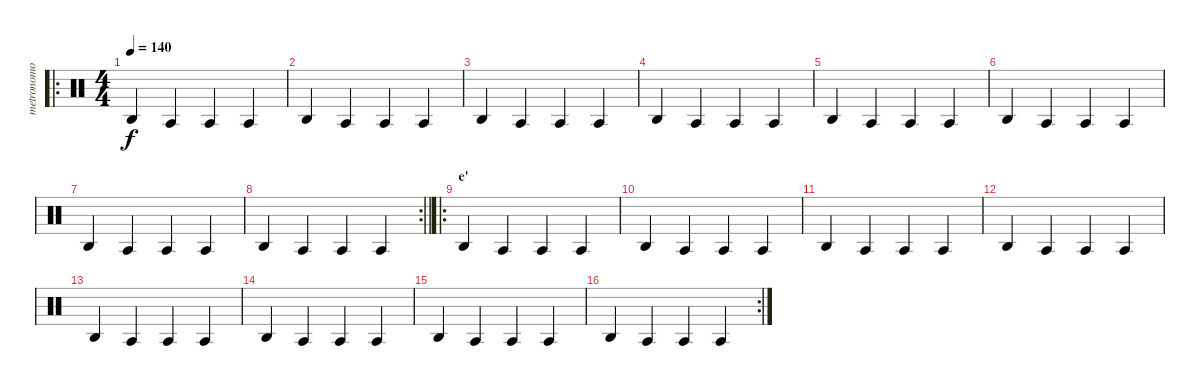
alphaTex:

\track ("metronomo" "metronomo") {instrument percussion}
\staff {score}
\articulation defaults
\ro
\ts (4 4)
\tempo 140
\clef neutral
\ks c "Agogo high (hit)".4{dy f} "Agogo tow (hit)".4 "Agogo tow (hit)".4 "Agogo tow (hit)".4
|
"Agogo high (hit)".4 "Agogo tow (hit)".4 "Agogo tow (hit)".4 "Agogo tow (hit)".4 |
"Agogo high (hit)".4 "Agogo tow (hit)".4 "Agogo tow (hit)".4 "Agogo tow (hit)".4 |
"Agogo high (hit)".4 "Agogo tow (hit)".4 "Agogo tow (hit)".4 "Agogo tow (hit)".4 |
"Agogo high (hit)".4 "Agogo tow (hit)".4 "Agogo tow (hit)".4 "Agogo tow (hit)".4 |
"Agogo high (hit)".4 "Agogo tow (hit)".4 "Agogo tow (hit)".4 "Agogo tow (hit)".4 |
"Agogo high (hit)".4 "Agogo tow (hit)".4 "Agogo tow (hit)".4 "Agogo tow (hit)".4 |
\rc 2
\barLineRight lightlight "Agogo high (hit)".4 "Agogo tow (hit)".4 "Agogo tow (hit)".4 "Agogo tow (hit)".4
|
\ro
\section ("" "e'")
"Agogo high (hit)".4 "Agogo tow (hit)".4 "Agogo tow (hit)".4 "Agogo tow (hit)".4 |
"Agogo high (hit)".4 "Agogo tow (hit)".4 "Agogo tow (hit)".4 "Agogo tow (hit)".4 |
"Agogo high (hit)".4 "Agogo tow (hit)".4 "Agogo tow (hit)".4 "Agogo tow (hit)".4 |
"Agogo high (hit)".4 "Agogo tow (hit)".4 "Agogo tow (hit)".4 "Agogo tow (hit)".4 |
"Agogo high (hit)".4 "Agogo tow (hit)".4 "Agogo tow (hit)".4 "Agogo tow (hit)".4 |
"Agogo high (hit)".4 "Agogo tow (hit)".4 "Agogo tow (hit)".4 "Agogo tow (hit)".4 |
"Agogo high (hit)".4 "Agogo tow (hit)".4 "Agogo tow (hit)".4 "Agogo tow (hit)".4 |
\rc 2 "Agogo high (hit)".4 "Agogo tow (hit)".4 "Agogo tow (hit)".4 "Agogo tow (hit)".4
